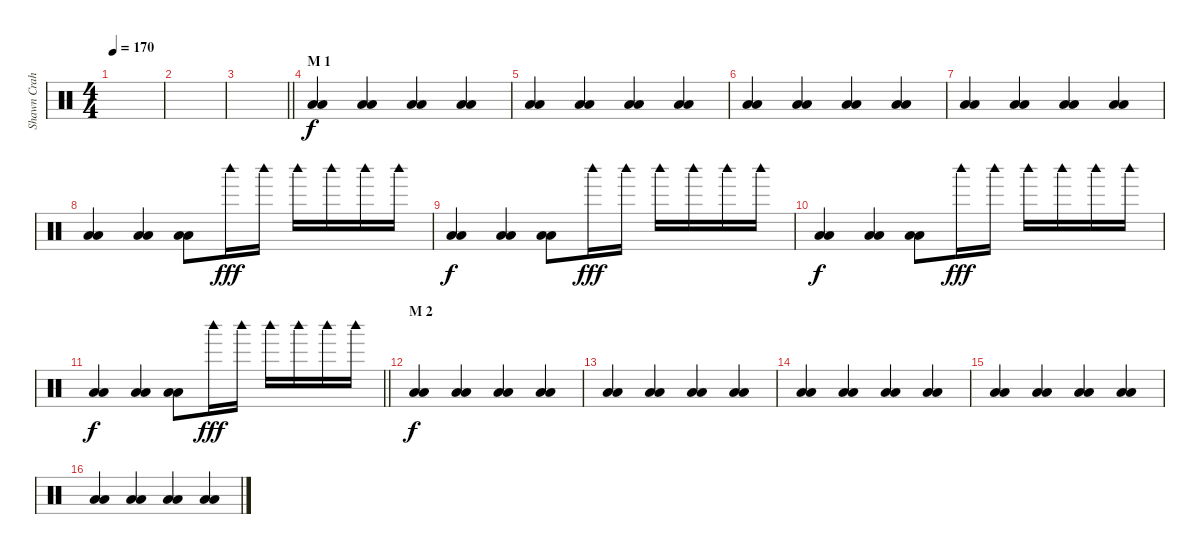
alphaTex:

\track ("Shawn Crahan" "Shawn Crah") {instrument percussion}
\staff {score}
\articulation defaults
\ts (4 4)
\tempo 170
\clef neutral
\ks c
|
|
\barLineRight lightlight
|
\section ("" "M 1")
("Low Floor Tom (hit)" "Low Floor Tom (hit)").4 ("Low Floor Tom (hit)" "Low Floor Tom (hit)").4 ("Low Floor Tom (hit)" "Low Floor Tom (hit)").4 ("Low Floor Tom (hit)" "Low Floor Tom (hit)").4 |
("Low Floor Tom (hit)" "Low Floor Tom (hit)").4 ("Low Floor Tom (hit)" "Low Floor Tom (hit)").4 ("Low Floor Tom (hit)" "Low Floor Tom (hit)").4 ("Low Floor Tom (hit)" "Low Floor Tom (hit)").4 |
("Low Floor Tom (hit)" "Low Floor Tom (hit)").4 ("Low Floor Tom (hit)" "Low Floor Tom (hit)").4 ("Low Floor Tom (hit)" "Low Floor Tom (hit)").4 ("Low Floor Tom (hit)" "Low Floor Tom (hit)").4 |
("Low Floor Tom (hit)" "Low Floor Tom (hit)").4 ("Low Floor Tom (hit)" "Low Floor Tom (hit)").4 ("Low Floor Tom (hit)" "Low Floor Tom (hit)").4 ("Low Floor Tom (hit)" "Low Floor Tom (hit)").4 |
("Low Floor Tom (hit)" "Low Floor Tom (hit)").4 ("Low Floor Tom (hit)" "Low Floor Tom (hit)").4 ("Low Floor Tom (hit)" "Low Floor Tom (hit)").8 "Woodblock high (hit)".16{dy fff} "Woodblock high (hit)".16 "Woodblock high (hit)".16 "Woodblock high (hit)".16 "Woodblock high (hit)".16 "Woodblock high (hit)".16 |
("Low Floor Tom (hit)" "Low Floor Tom (hit)").4{dy f} ("Low Floor Tom (hit)" "Low Floor Tom (hit)").4 ("Low Floor Tom (hit)" "Low Floor Tom (hit)").8 "Woodblock high (hit)".16{dy fff} "Woodblock high (hit)".16 "Woodblock high (hit)".16 "Woodblock high (hit)".16 "Woodblock high (hit)".16 "Woodblock high (hit)".16 |
("Low Floor Tom (hit)" "Low Floor Tom (hit)").4{dy f} ("Low Floor Tom (hit)" "Low Floor Tom (hit)").4 ("Low Floor Tom (hit)" "Low Floor Tom (hit)").8 "Woodblock high (hit)".16{dy fff} "Woodblock high (hit)".16 "Woodblock high (hit)".16 "Woodblock high (hit)".16 "Woodblock high (hit)".16 "Woodblock high (hit)".16 |
\barLineRight lightlight
("Low Floor Tom (hit)" "Low Floor Tom (hit)").4{dy f} ("Low Floor Tom (hit)" "Low Floor Tom (hit)").4 ("Low Floor Tom (hit)" "Low Floor Tom (hit)").8 "Woodblock high (hit)".16{dy fff} "Woodblock high (hit)".16 "Woodblock high (hit)".16 "Woodblock high (hit)".16 "Woodblock high (hit)".16 "Woodblock high (hit)".16 |
\section ("" "M 2")
("Low Floor Tom (hit)" "Low Floor Tom (hit)").4{dy f} ("Low Floor Tom (hit)" "Low Floor Tom (hit)").4 ("Low Floor Tom (hit)" "Low Floor Tom (hit)").4 ("Low Floor Tom (hit)" "Low Floor Tom (hit)").4 |
("Low Floor Tom (hit)" "Low Floor Tom (hit)").4 ("Low Floor Tom (hit)" "Low Floor Tom (hit)").4 ("Low Floor Tom (hit)" "Low Floor Tom (hit)").4 ("Low Floor Tom (hit)" "Low Floor Tom (hit)").4 |
("Low Floor Tom (hit)" "Low Floor Tom (hit)").4 ("Low Floor Tom (hit)" "Low Floor Tom (hit)").4 ("Low Floor Tom (hit)" "Low Floor Tom (hit)").4 ("Low Floor Tom (hit)" "Low Floor Tom (hit)").4 |
("Low Floor Tom (hit)" "Low Floor Tom (hit)").4 ("Low Floor Tom (hit)" "Low Floor Tom (hit)").4 ("Low Floor Tom (hit)" "Low Floor Tom (hit)").4 ("Low Floor Tom (hit)" "Low Floor Tom (hit)").4 |
("Low Floor Tom (hit)" "Low Floor Tom (hit)").4 ("Low Floor Tom (hit)" "Low Floor Tom (hit)").4 ("Low Floor Tom (hit)" "Low Floor Tom (hit)").4 ("Low Floor Tom (hit)" "Low Floor Tom (hit)").4
